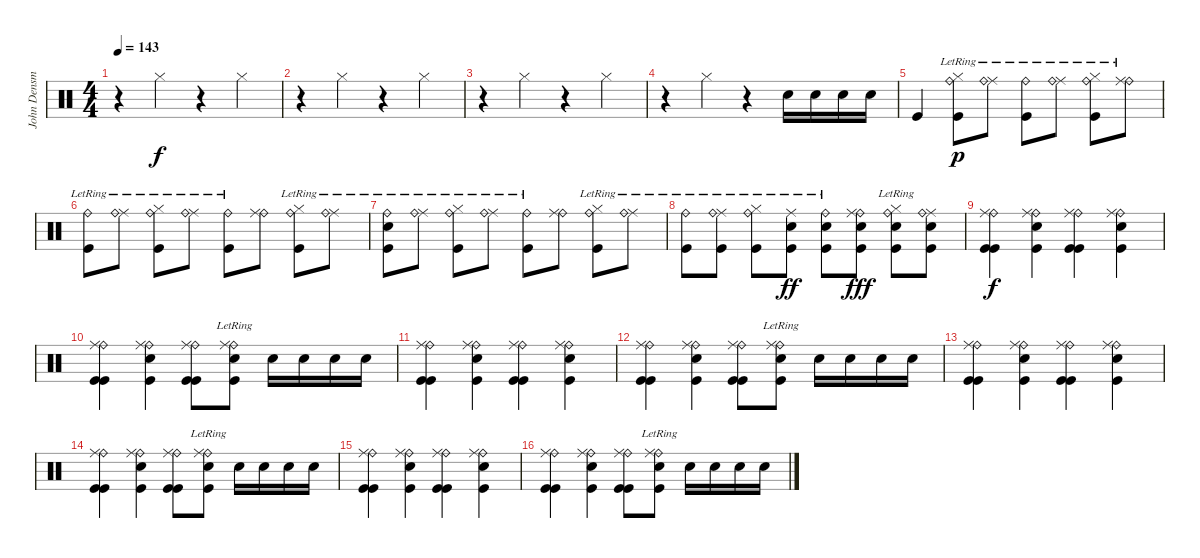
\track ("John Densmore" "John Densm") {instrument percussion}
\staff {score}
\articulation defaults
\ts (4 4)
\tempo 143
\tempo 158
\tempo 143
\clef neutral
\ks c
r.4{dy f} "Hi-Hat (closed)".4 r.4 "Hi-Hat (closed)".4 |
r.4 "Hi-Hat (closed)".4 r.4 "Hi-Hat (closed)".4 |
r.4 "Hi-Hat (closed)".4 r.4 "Hi-Hat (closed)".4 |
r.4 "Hi-Hat (closed)".4 r.4 "Snare (hit) 2".16 "Snare (hit) 2".16 "Electric Snare (hit)".16 "Electric Snare (hit)".16 |
"Kick (hit)".4 ("Hi-Hat (closed)" "Ride (bell)"{lr} "Kick (hit)").8{dy p} ("Ride (middle)"{lr} "Ride (bell)"{lr}).8 ("Ride (bell)"{lr} "Kick (hit)").8 ("Ride (middle)"{lr} "Ride (bell)"{lr}).8 ("Ride (bell)"{lr} "Hi-Hat (closed)" "Kick (hit)").8 ("Ride (bell)"{lr} "Ride (middle)"{lr}).8 |
("Ride (bell)"{lr} "Kick (hit)").8 ("Ride (middle)"{lr} "Ride (bell)"{lr}).8 ("Hi-Hat (closed)" "Ride (bell)"{lr} "Kick (hit)").8 ("Ride (middle)"{lr} "Ride (bell)"{lr}).8 ("Ride (bell)"{lr} "Kick (hit)").8 ("Ride (bell)" "Ride (middle)").8 ("Hi-Hat (closed)" "Ride (bell)"{lr} "Kick (hit)").8 ("Ride (middle)"{lr} "Ride (bell)"{lr}).8 |
("Electric Snare (hit)" "Ride (bell)"{lr} "Kick (hit)").8 ("Ride (middle)"{lr} "Ride (bell)"{lr}).8 ("Hi-Hat (closed)" "Ride (bell)"{lr} "Kick (hit)").8 ("Ride (middle)"{lr} "Ride (bell)"{lr}).8 ("Ride (bell)"{lr} "Kick (hit)").8 ("Ride (bell)" "Ride (middle)").8 ("Hi-Hat (closed)" "Ride (bell)"{lr} "Kick (hit)").8 ("Ride (middle)"{lr} "Ride (bell)"{lr}).8 |
("Ride (bell)"{lr} "Kick (hit)").8 ("Ride (middle)"{lr} "Ride (bell)"{lr} "Kick (hit)").8 ("Hi-Hat (closed)" "Ride (bell)"{lr} "Kick (hit)").8 ("Snare (hit) 2" "Ride (middle)"{lr} "Kick (hit)"{lr}).8{dy ff} ("Ride (bell)"{lr} "Snare (hit) 2" "Kick (hit)").8 ("Snare (hit) 2" "Ride (bell)" "Ride (middle)" "Kick (hit)").8{dy fff} ("Snare (hit) 2" "Hi-Hat (closed)" "Ride (bell)"{lr} "Kick (hit)").8 ("Ride (middle)"{lr} "Snare (hit) 2" "Ride (bell)"{lr} "Kick (hit)").8 |
("Ride (bell)" "Ride (middle)" "Kick (hit)" "Kick (hit)").4{dy f} ("Ride (bell)" "Ride (middle)" "Kick (hit)" "Snare (hit) 2").4 ("Ride (bell)" "Ride (middle)" "Kick (hit)" "Kick (hit)").4 ("Ride (bell)" "Ride (middle)" "Kick (hit)" "Snare (hit) 2").4 |
("Ride (bell)" "Ride (middle)" "Kick (hit)" "Kick (hit)").4 ("Ride (bell)" "Ride (middle)" "Kick (hit)" "Snare (hit) 2").4 ("Ride (bell)" "Ride (middle)" "Kick (hit)" "Kick (hit)").8 ("Ride (bell)"{lr} "Ride (middle)"{lr} "Kick (hit)" "Snare (hit) 2").8 "Snare (hit) 2".16 "Snare (hit) 2".16 "Snare (hit) 2".16 "Snare (hit) 2".16 |
("Ride (bell)" "Ride (middle)" "Kick (hit)" "Kick (hit)").4 ("Ride (bell)" "Ride (middle)" "Kick (hit)" "Snare (hit) 2").4 ("Ride (bell)" "Ride (middle)" "Kick (hit)" "Kick (hit)").4 ("Ride (bell)" "Ride (middle)" "Kick (hit)" "Snare (hit) 2").4 |
("Ride (bell)" "Ride (middle)" "Kick (hit)" "Kick (hit)").4 ("Ride (bell)" "Ride (middle)" "Kick (hit)" "Snare (hit) 2").4 ("Ride (bell)" "Ride (middle)" "Kick (hit)" "Kick (hit)").8 ("Ride (bell)"{lr} "Ride (middle)"{lr} "Kick (hit)" "Snare (hit) 2").8 "Snare (hit) 2".16 "Snare (hit) 2".16 "Snare (hit) 2".16 "Snare (hit) 2".16 |
("Ride (bell)" "Ride (middle)" "Kick (hit)" "Kick (hit)").4 ("Ride (bell)" "Ride (middle)" "Kick (hit)" "Snare (hit) 2").4 ("Ride (bell)" "Ride (middle)" "Kick (hit)" "Kick (hit)").4 ("Ride (bell)" "Ride (middle)" "Kick (hit)" "Snare (hit) 2").4 |
("Ride (bell)" "Ride (middle)" "Kick (hit)" "Kick (hit)").4 ("Ride (bell)" "Ride (middle)" "Kick (hit)" "Snare (hit) 2").4 ("Ride (bell)" "Ride (middle)" "Kick (hit)" "Kick (hit)").8 ("Ride (bell)"{lr} "Ride (middle)"{lr} "Kick (hit)" "Snare (hit) 2").8 "Snare (hit) 2".16 "Snare (hit) 2".16 "Snare (hit) 2".16 "Snare (hit) 2".16 |
("Ride (bell)" "Ride (middle)" "Kick (hit)" "Kick (hit)").4 ("Ride (bell)" "Ride (middle)" "Kick (hit)" "Snare (hit) 2").4 ("Ride (bell)" "Ride (middle)" "Kick (hit)" "Kick (hit)").4 ("Ride (bell)" "Ride (middle)" "Kick (hit)" "Snare (hit) 2").4 |
("Ride (bell)" "Ride (middle)" "Kick (hit)" "Kick (hit)").4 ("Ride (bell)" "Ride (middle)" "Kick (hit)" "Snare (hit) 2").4 ("Ride (bell)" "Ride (middle)" "Kick (hit)" "Kick (hit)").8 ("Ride (bell)"{lr} "Ride (middle)"{lr} "Kick (hit)" "Snare (hit) 2").8 "Snare (hit) 2".16 "Snare (hit) 2".16 "Snare (hit) 2".16 "Snare (hit) 2".16
